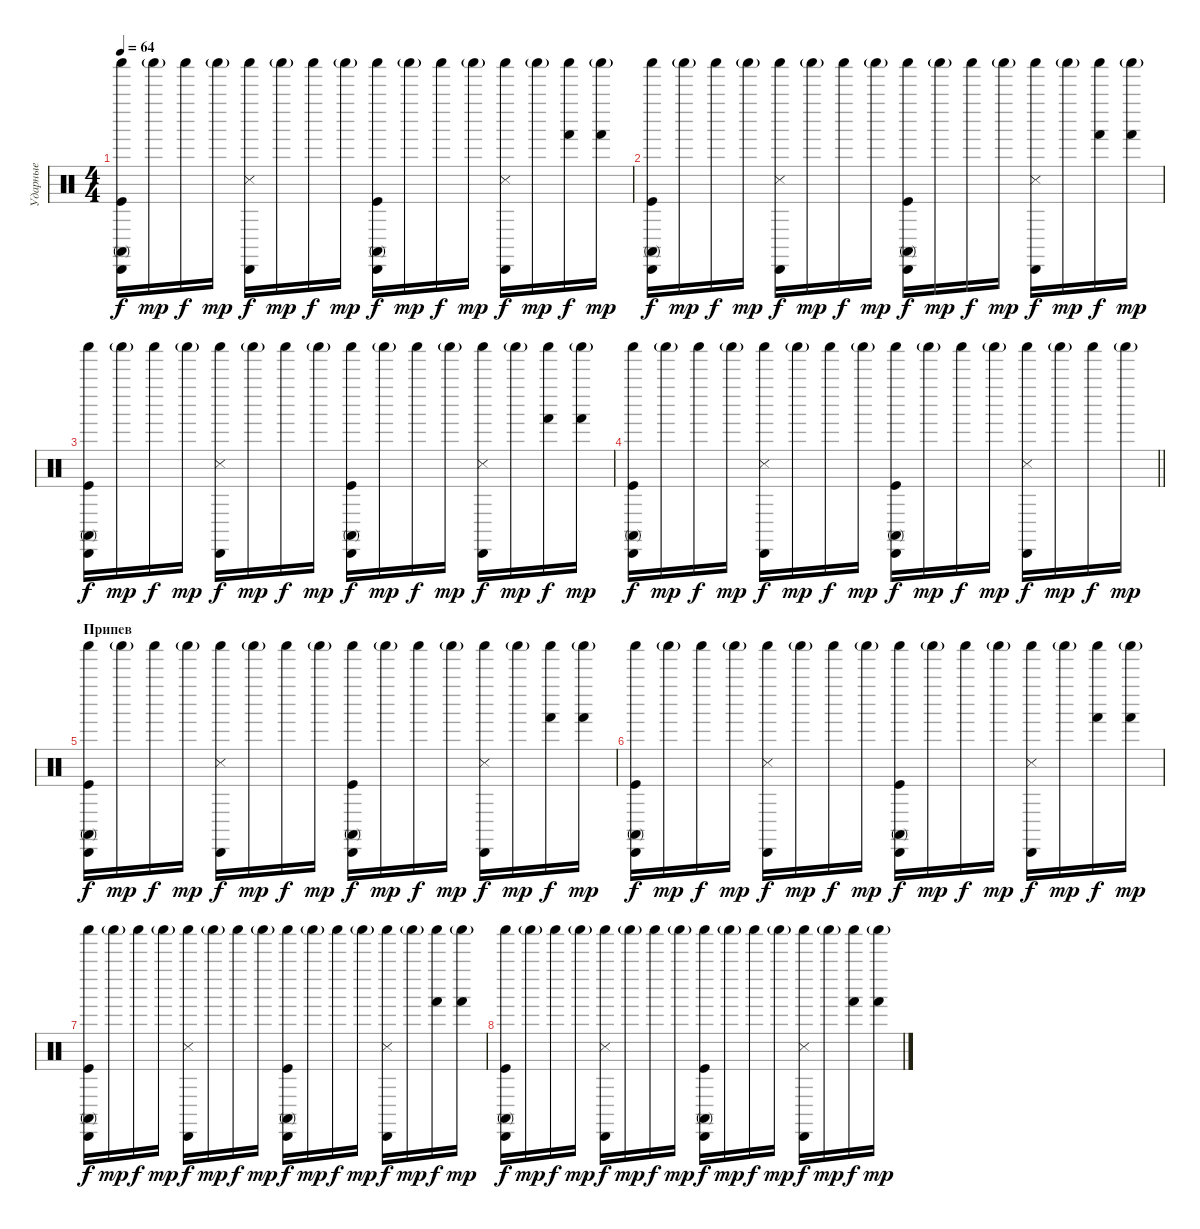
\track ("Ударные" "Ударные") {instrument percussion}
\staff {score}
\articulation defaults
\ts (4 4)
\tempo 64
\clef neutral
\ks c
("Kick (hit)" "Conga high (mute)" "Cabasa (hit)" "Shaker (hit)").16{dy f} "Shaker (hit)"{g}.16{dy mp} "Shaker (hit)".16{dy f} "Shaker (hit)"{g}.16{dy mp} ("Snare (side stick) 3" "Cabasa (hit)" "Shaker (hit)").16{dy f} "Shaker (hit)"{g}.16{dy mp} "Shaker (hit)".16{dy f} "Shaker (hit)"{g}.16{dy mp} ("Kick (hit)" "Conga high (mute)" "Cabasa (hit)" "Shaker (hit)").16{dy f} "Shaker (hit)"{g}.16{dy mp} "Shaker (hit)".16{dy f} "Shaker (hit)"{g}.16{dy mp} ("Snare (side stick) 3" "Cabasa (hit)" "Shaker (hit)").16{dy f} "Shaker (hit)"{g}.16{dy mp} ("Hand (hit)" "Shaker (hit)").16{dy f} ("Hand (hit)" "Shaker (hit)"{g}).16{dy mp} |
("Kick (hit)" "Conga high (mute)" "Cabasa (hit)" "Shaker (hit)").16{dy f} "Shaker (hit)"{g}.16{dy mp} "Shaker (hit)".16{dy f} "Shaker (hit)"{g}.16{dy mp} ("Snare (side stick) 3" "Cabasa (hit)" "Shaker (hit)").16{dy f} "Shaker (hit)"{g}.16{dy mp} "Shaker (hit)".16{dy f} "Shaker (hit)"{g}.16{dy mp} ("Kick (hit)" "Conga high (mute)" "Cabasa (hit)" "Shaker (hit)").16{dy f} "Shaker (hit)"{g}.16{dy mp} "Shaker (hit)".16{dy f} "Shaker (hit)"{g}.16{dy mp} ("Snare (side stick) 3" "Cabasa (hit)" "Shaker (hit)").16{dy f} "Shaker (hit)"{g}.16{dy mp} ("Hand (hit)" "Shaker (hit)").16{dy f} ("Hand (hit)" "Shaker (hit)"{g}).16{dy mp} |
("Kick (hit)" "Conga high (mute)" "Cabasa (hit)" "Shaker (hit)").16{dy f} "Shaker (hit)"{g}.16{dy mp} "Shaker (hit)".16{dy f} "Shaker (hit)"{g}.16{dy mp} ("Snare (side stick) 3" "Cabasa (hit)" "Shaker (hit)").16{dy f} "Shaker (hit)"{g}.16{dy mp} "Shaker (hit)".16{dy f} "Shaker (hit)"{g}.16{dy mp} ("Kick (hit)" "Conga high (mute)" "Cabasa (hit)" "Shaker (hit)").16{dy f} "Shaker (hit)"{g}.16{dy mp} "Shaker (hit)".16{dy f} "Shaker (hit)"{g}.16{dy mp} ("Snare (side stick) 3" "Cabasa (hit)" "Shaker (hit)").16{dy f} "Shaker (hit)"{g}.16{dy mp} ("Hand (hit)" "Shaker (hit)").16{dy f} ("Hand (hit)" "Shaker (hit)"{g}).16{dy mp} |
\barLineRight lightlight
("Kick (hit)" "Conga high (mute)" "Cabasa (hit)" "Shaker (hit)").16{dy f} "Shaker (hit)"{g}.16{dy mp} "Shaker (hit)".16{dy f} "Shaker (hit)"{g}.16{dy mp} ("Snare (side stick) 3" "Cabasa (hit)" "Shaker (hit)").16{dy f} "Shaker (hit)"{g}.16{dy mp} "Shaker (hit)".16{dy f} "Shaker (hit)"{g}.16{dy mp} ("Kick (hit)" "Conga high (mute)" "Cabasa (hit)" "Shaker (hit)").16{dy f} "Shaker (hit)"{g}.16{dy mp} "Shaker (hit)".16{dy f} "Shaker (hit)"{g}.16{dy mp} ("Snare (side stick) 3" "Cabasa (hit)" "Shaker (hit)").16{dy f} "Shaker (hit)"{g}.16{dy mp} "Shaker (hit)".16{dy f} "Shaker (hit)"{g}.16{dy mp} |
\section ("" "Припев")
("Kick (hit)" "Conga high (mute)" "Cabasa (hit)" "Shaker (hit)").16{dy f} "Shaker (hit)"{g}.16{dy mp} "Shaker (hit)".16{dy f} "Shaker (hit)"{g}.16{dy mp} ("Snare (side stick) 3" "Cabasa (hit)" "Shaker (hit)").16{dy f} "Shaker (hit)"{g}.16{dy mp} "Shaker (hit)".16{dy f} "Shaker (hit)"{g}.16{dy mp} ("Kick (hit)" "Conga high (mute)" "Cabasa (hit)" "Shaker (hit)").16{dy f} "Shaker (hit)"{g}.16{dy mp} "Shaker (hit)".16{dy f} "Shaker (hit)"{g}.16{dy mp} ("Snare (side stick) 3" "Cabasa (hit)" "Shaker (hit)").16{dy f} "Shaker (hit)"{g}.16{dy mp} ("Hand (hit)" "Shaker (hit)").16{dy f} ("Hand (hit)" "Shaker (hit)"{g}).16{dy mp} |
("Kick (hit)" "Conga high (mute)" "Cabasa (hit)" "Shaker (hit)").16{dy f} "Shaker (hit)"{g}.16{dy mp} "Shaker (hit)".16{dy f} "Shaker (hit)"{g}.16{dy mp} ("Snare (side stick) 3" "Cabasa (hit)" "Shaker (hit)").16{dy f} "Shaker (hit)"{g}.16{dy mp} "Shaker (hit)".16{dy f} "Shaker (hit)"{g}.16{dy mp} ("Kick (hit)" "Conga high (mute)" "Cabasa (hit)" "Shaker (hit)").16{dy f} "Shaker (hit)"{g}.16{dy mp} "Shaker (hit)".16{dy f} "Shaker (hit)"{g}.16{dy mp} ("Snare (side stick) 3" "Cabasa (hit)" "Shaker (hit)").16{dy f} "Shaker (hit)"{g}.16{dy mp} ("Hand (hit)" "Shaker (hit)").16{dy f} ("Hand (hit)" "Shaker (hit)"{g}).16{dy mp} |
("Kick (hit)" "Conga high (mute)" "Cabasa (hit)" "Shaker (hit)").16{dy f} "Shaker (hit)"{g}.16{dy mp} "Shaker (hit)".16{dy f} "Shaker (hit)"{g}.16{dy mp} ("Snare (side stick) 3" "Cabasa (hit)" "Shaker (hit)").16{dy f} "Shaker (hit)"{g}.16{dy mp} "Shaker (hit)".16{dy f} "Shaker (hit)"{g}.16{dy mp} ("Kick (hit)" "Conga high (mute)" "Cabasa (hit)" "Shaker (hit)").16{dy f} "Shaker (hit)"{g}.16{dy mp} "Shaker (hit)".16{dy f} "Shaker (hit)"{g}.16{dy mp} ("Snare (side stick) 3" "Cabasa (hit)" "Shaker (hit)").16{dy f} "Shaker (hit)"{g}.16{dy mp} ("Hand (hit)" "Shaker (hit)").16{dy f} ("Hand (hit)" "Shaker (hit)"{g}).16{dy mp} |
("Kick (hit)" "Conga high (mute)" "Cabasa (hit)" "Shaker (hit)").16{dy f} "Shaker (hit)"{g}.16{dy mp} "Shaker (hit)".16{dy f} "Shaker (hit)"{g}.16{dy mp} ("Snare (side stick) 3" "Cabasa (hit)" "Shaker (hit)").16{dy f} "Shaker (hit)"{g}.16{dy mp} "Shaker (hit)".16{dy f} "Shaker (hit)"{g}.16{dy mp} ("Kick (hit)" "Conga high (mute)" "Cabasa (hit)" "Shaker (hit)").16{dy f} "Shaker (hit)"{g}.16{dy mp} "Shaker (hit)".16{dy f} "Shaker (hit)"{g}.16{dy mp} ("Snare (side stick) 3" "Cabasa (hit)" "Shaker (hit)").16{dy f} "Shaker (hit)"{g}.16{dy mp} ("Hand (hit)" "Shaker (hit)").16{dy f} ("Hand (hit)" "Shaker (hit)"{g}).16{dy mp}
